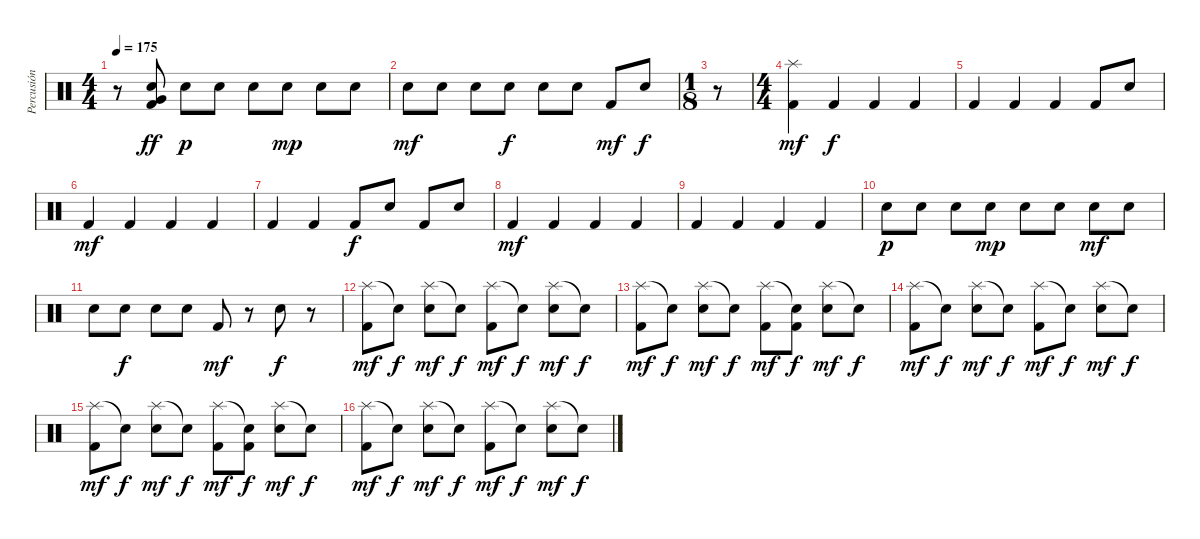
\track ("Percusión" "Percusión") {instrument percussion}
\staff {score}
\articulation defaults
\ts (4 4)
\tempo 175
\clef neutral
\ks c
r.8{dy f} ("Very Low Tom (hit)" "Snare (hit) 2" "Kick (hit) 2").8{dy ff} "Snare (hit) 2".8{dy p} "Snare (hit) 2".8 "Snare (hit) 2".8 "Snare (hit) 2".8{dy mp} "Snare (hit) 2".8 "Snare (hit) 2".8 |
"Snare (hit) 2".8{dy mf} "Snare (hit) 2".8 "Snare (hit) 2".8 "Snare (hit) 2".8{dy f} "Snare (hit) 2".8 "Snare (hit) 2".8 "Kick (hit) 2".8{dy mf} "Snare (hit) 2".8{dy f} |
\ts (1 8)
r.8 |
\ts (4 4)
("Splash (hit)" "Kick (hit) 2").4{dy mf} "Kick (hit) 2".4{dy f} "Kick (hit) 2".4 "Kick (hit) 2".4 |
"Kick (hit) 2".4 "Kick (hit) 2".4 "Kick (hit) 2".4 "Kick (hit) 2".8 "Snare (hit) 2".8 |
"Kick (hit) 2".4{dy mf} "Kick (hit) 2".4 "Kick (hit) 2".4 "Kick (hit) 2".4 |
"Kick (hit) 2".4 "Kick (hit) 2".4 "Kick (hit) 2".8{dy f} "Snare (hit) 2".8 "Kick (hit) 2".8 "Snare (hit) 2".8 |
"Kick (hit) 2".4{dy mf} "Kick (hit) 2".4 "Kick (hit) 2".4 "Kick (hit) 2".4 |
"Kick (hit) 2".4 "Kick (hit) 2".4 "Kick (hit) 2".4 "Kick (hit) 2".4 |
"Snare (hit) 2".8{dy p} "Snare (hit) 2".8 "Snare (hit) 2".8 "Snare (hit) 2".8{dy mp} "Snare (hit) 2".8 "Snare (hit) 2".8 "Snare (hit) 2".8{dy mf} "Snare (hit) 2".8 |
"Snare (hit) 2".8 "Snare (hit) 2".8{dy f} "Snare (hit) 2".8 "Snare (hit) 2".8 "Kick (hit) 2".8{dy mf} r.8 "Snare (hit) 2".8{dy f} r.8 |
("Splash (hit)" "Kick (hit) 2").8{dy mf} "Snare (hit)"{t}.8{dy f} ("Splash (hit)" "Snare (hit) 2").8{dy mf} "Snare (hit)"{t}.8{dy f} ("Splash (hit)" "Kick (hit) 2").8{dy mf} "Snare (hit)"{t}.8{dy f} ("Splash (hit)" "Snare (hit) 2").8{dy mf} "Snare (hit)"{t}.8{dy f} |
("Splash (hit)" "Kick (hit) 2").8{dy mf} "Snare (hit)"{t}.8{dy f} ("Splash (hit)" "Snare (hit) 2").8{dy mf} "Snare (hit)"{t}.8{dy f} ("Splash (hit)" "Kick (hit) 2").8{dy mf} ("Snare (hit)"{t} "Kick (hit) 2").8{dy f} ("Splash (hit)" "Snare (hit) 2").8{dy mf} "Snare (hit)"{t}.8{dy f} |
("Splash (hit)" "Kick (hit) 2").8{dy mf} "Snare (hit)"{t}.8{dy f} ("Splash (hit)" "Snare (hit) 2").8{dy mf} "Snare (hit)"{t}.8{dy f} ("Splash (hit)" "Kick (hit) 2").8{dy mf} "Snare (hit)"{t}.8{dy f} ("Splash (hit)" "Snare (hit) 2").8{dy mf} "Snare (hit)"{t}.8{dy f} |
("Splash (hit)" "Kick (hit) 2").8{dy mf} "Snare (hit)"{t}.8{dy f} ("Splash (hit)" "Snare (hit) 2").8{dy mf} "Snare (hit)"{t}.8{dy f} ("Splash (hit)" "Kick (hit) 2").8{dy mf} ("Snare (hit)"{t} "Kick (hit) 2").8{dy f} ("Splash (hit)" "Snare (hit) 2").8{dy mf} "Snare (hit)"{t}.8{dy f} |
("Splash (hit)" "Kick (hit) 2").8{dy mf} "Snare (hit)"{t}.8{dy f} ("Splash (hit)" "Snare (hit) 2").8{dy mf} "Snare (hit)"{t}.8{dy f} ("Splash (hit)" "Kick (hit) 2").8{dy mf} "Snare (hit)"{t}.8{dy f} ("Splash (hit)" "Snare (hit) 2").8{dy mf} "Snare (hit)"{t}.8{dy f}
